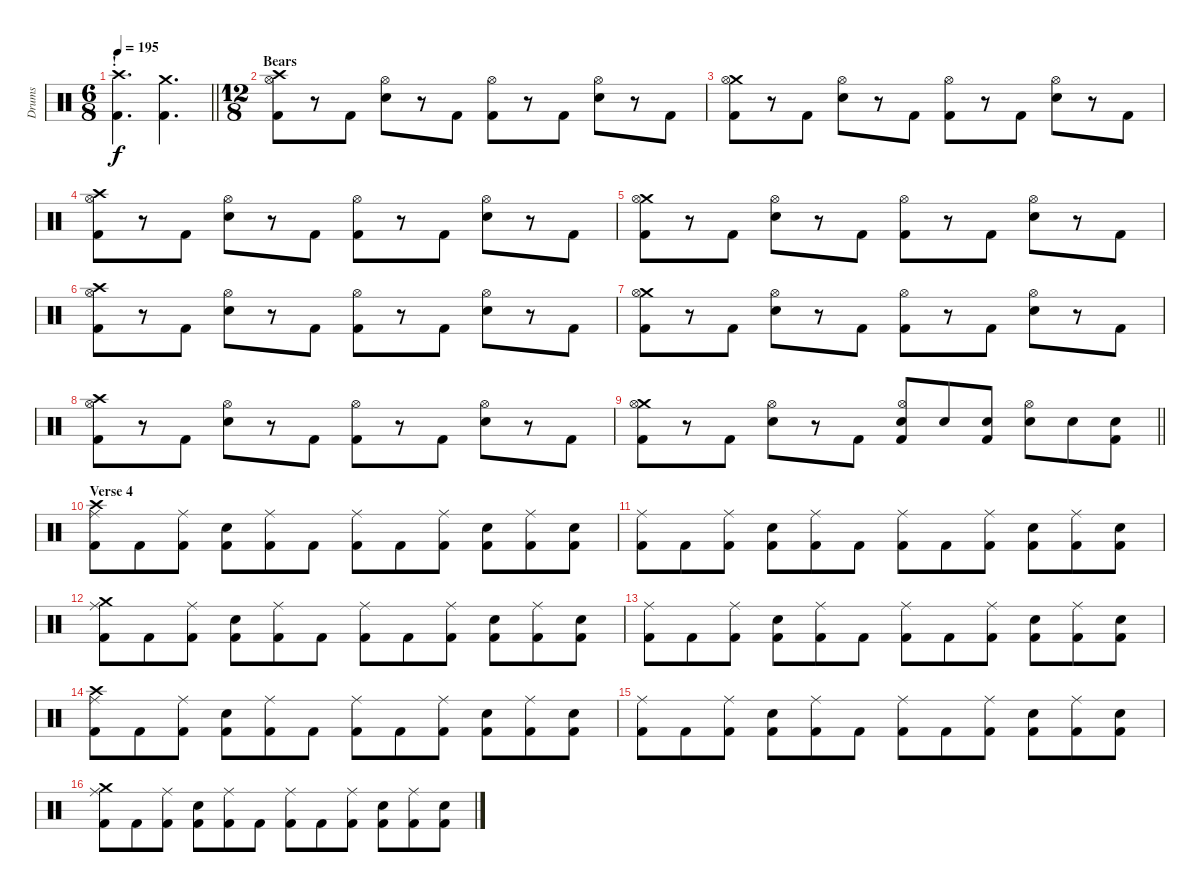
\track ("Drums" "Drums") {instrument percussion}
\staff {score}
\articulation defaults
\ts (6 8)
\section ("" "!")
\tempo 195
\clef neutral
\barLineRight lightlight
\ks c
("Crash high (hit)" "Kick (hit) 2").4{d dy f} ("Crash medium (hit)" "Kick (hit) 2").4{d} |
\ts (12 8)
\section ("" "Bears")
("Crash high (hit)" "Hi-Hat (open)" "Kick (hit) 2").8 r.8 "Kick (hit) 2".8 ("Hi-Hat (open)" "Snare (hit) 2").8 r.8 "Kick (hit) 2".8 ("Hi-Hat (open)" "Kick (hit) 2").8 r.8 "Kick (hit) 2".8 ("Hi-Hat (open)" "Snare (hit) 2").8 r.8 "Kick (hit) 2".8 |
("Crash medium (hit)" "Hi-Hat (open)" "Kick (hit) 2").8 r.8 "Kick (hit) 2".8 ("Hi-Hat (open)" "Snare (hit) 2").8 r.8 "Kick (hit) 2".8 ("Hi-Hat (open)" "Kick (hit) 2").8 r.8 "Kick (hit) 2".8 ("Hi-Hat (open)" "Snare (hit) 2").8 r.8 "Kick (hit) 2".8 |
("Crash high (hit)" "Hi-Hat (open)" "Kick (hit) 2").8 r.8 "Kick (hit) 2".8 ("Hi-Hat (open)" "Snare (hit) 2").8 r.8 "Kick (hit) 2".8 ("Hi-Hat (open)" "Kick (hit) 2").8 r.8 "Kick (hit) 2".8 ("Hi-Hat (open)" "Snare (hit) 2").8 r.8 "Kick (hit) 2".8 |
("Crash medium (hit)" "Hi-Hat (open)" "Kick (hit) 2").8 r.8 "Kick (hit) 2".8 ("Hi-Hat (open)" "Snare (hit) 2").8 r.8 "Kick (hit) 2".8 ("Hi-Hat (open)" "Kick (hit) 2").8 r.8 "Kick (hit) 2".8 ("Hi-Hat (open)" "Snare (hit) 2").8 r.8 "Kick (hit) 2".8 |
("Crash high (hit)" "Hi-Hat (open)" "Kick (hit) 2").8 r.8 "Kick (hit) 2".8 ("Hi-Hat (open)" "Snare (hit) 2").8 r.8 "Kick (hit) 2".8 ("Hi-Hat (open)" "Kick (hit) 2").8 r.8 "Kick (hit) 2".8 ("Hi-Hat (open)" "Snare (hit) 2").8 r.8 "Kick (hit) 2".8 |
("Crash medium (hit)" "Hi-Hat (open)" "Kick (hit) 2").8 r.8 "Kick (hit) 2".8 ("Hi-Hat (open)" "Snare (hit) 2").8 r.8 "Kick (hit) 2".8 ("Hi-Hat (open)" "Kick (hit) 2").8 r.8 "Kick (hit) 2".8 ("Hi-Hat (open)" "Snare (hit) 2").8 r.8 "Kick (hit) 2".8 |
("Crash high (hit)" "Hi-Hat (open)" "Kick (hit) 2").8 r.8 "Kick (hit) 2".8 ("Hi-Hat (open)" "Snare (hit) 2").8 r.8 "Kick (hit) 2".8 ("Hi-Hat (open)" "Kick (hit) 2").8 r.8 "Kick (hit) 2".8 ("Hi-Hat (open)" "Snare (hit) 2").8 r.8 "Kick (hit) 2".8 |
\barLineRight lightlight
("Crash medium (hit)" "Hi-Hat (open)" "Kick (hit) 2").8 r.8 "Kick (hit) 2".8 ("Hi-Hat (open)" "Snare (hit) 2").8 r.8 "Kick (hit) 2".8 ("Hi-Hat (open)" "Snare (hit) 2" "Kick (hit) 2").8 "Snare (hit) 2".8 ("Snare (hit) 2" "Kick (hit) 2").8 ("Hi-Hat (open)" "Snare (hit) 2").8 "Snare (hit) 2".8 ("Snare (hit) 2" "Kick (hit) 2").8 |
\section ("" "Verse 4")
("Crash high (hit)" "Ride (middle)" "Kick (hit) 2").8 "Kick (hit) 2".8 ("Ride (middle)" "Kick (hit) 2").8 ("Snare (hit) 2" "Kick (hit) 2").8 ("Ride (middle)" "Kick (hit) 2").8 "Kick (hit) 2".8 ("Ride (middle)" "Kick (hit) 2").8 "Kick (hit) 2".8 ("Ride (middle)" "Kick (hit) 2").8 ("Snare (hit) 2" "Kick (hit) 2").8 ("Ride (middle)" "Kick (hit) 2").8 ("Snare (hit) 2" "Kick (hit) 2").8 |
("Ride (middle)" "Kick (hit) 2").8 "Kick (hit) 2".8 ("Ride (middle)" "Kick (hit) 2").8 ("Snare (hit) 2" "Kick (hit) 2").8 ("Ride (middle)" "Kick (hit) 2").8 "Kick (hit) 2".8 ("Ride (middle)" "Kick (hit) 2").8 "Kick (hit) 2".8 ("Ride (middle)" "Kick (hit) 2").8 ("Snare (hit) 2" "Kick (hit) 2").8 ("Ride (middle)" "Kick (hit) 2").8 ("Snare (hit) 2" "Kick (hit) 2").8 |
("Crash medium (hit)" "Ride (middle)" "Kick (hit) 2").8 "Kick (hit) 2".8 ("Ride (middle)" "Kick (hit) 2").8 ("Snare (hit) 2" "Kick (hit) 2").8 ("Ride (middle)" "Kick (hit) 2").8 "Kick (hit) 2".8 ("Ride (middle)" "Kick (hit) 2").8 "Kick (hit) 2".8 ("Ride (middle)" "Kick (hit) 2").8 ("Snare (hit) 2" "Kick (hit) 2").8 ("Ride (middle)" "Kick (hit) 2").8 ("Snare (hit) 2" "Kick (hit) 2").8 |
("Ride (middle)" "Kick (hit) 2").8 "Kick (hit) 2".8 ("Ride (middle)" "Kick (hit) 2").8 ("Snare (hit) 2" "Kick (hit) 2").8 ("Ride (middle)" "Kick (hit) 2").8 "Kick (hit) 2".8 ("Ride (middle)" "Kick (hit) 2").8 "Kick (hit) 2".8 ("Ride (middle)" "Kick (hit) 2").8 ("Snare (hit) 2" "Kick (hit) 2").8 ("Ride (middle)" "Kick (hit) 2").8 ("Snare (hit) 2" "Kick (hit) 2").8 |
("Crash high (hit)" "Ride (middle)" "Kick (hit) 2").8 "Kick (hit) 2".8 ("Ride (middle)" "Kick (hit) 2").8 ("Snare (hit) 2" "Kick (hit) 2").8 ("Ride (middle)" "Kick (hit) 2").8 "Kick (hit) 2".8 ("Ride (middle)" "Kick (hit) 2").8 "Kick (hit) 2".8 ("Ride (middle)" "Kick (hit) 2").8 ("Snare (hit) 2" "Kick (hit) 2").8 ("Ride (middle)" "Kick (hit) 2").8 ("Snare (hit) 2" "Kick (hit) 2").8 |
("Ride (middle)" "Kick (hit) 2").8 "Kick (hit) 2".8 ("Ride (middle)" "Kick (hit) 2").8 ("Snare (hit) 2" "Kick (hit) 2").8 ("Ride (middle)" "Kick (hit) 2").8 "Kick (hit) 2".8 ("Ride (middle)" "Kick (hit) 2").8 "Kick (hit) 2".8 ("Ride (middle)" "Kick (hit) 2").8 ("Snare (hit) 2" "Kick (hit) 2").8 ("Ride (middle)" "Kick (hit) 2").8 ("Snare (hit) 2" "Kick (hit) 2").8 |
("Crash medium (hit)" "Ride (middle)" "Kick (hit) 2").8 "Kick (hit) 2".8 ("Ride (middle)" "Kick (hit) 2").8 ("Snare (hit) 2" "Kick (hit) 2").8 ("Ride (middle)" "Kick (hit) 2").8 "Kick (hit) 2".8 ("Ride (middle)" "Kick (hit) 2").8 "Kick (hit) 2".8 ("Ride (middle)" "Kick (hit) 2").8 ("Snare (hit) 2" "Kick (hit) 2").8 ("Ride (middle)" "Kick (hit) 2").8 ("Snare (hit) 2" "Kick (hit) 2").8
